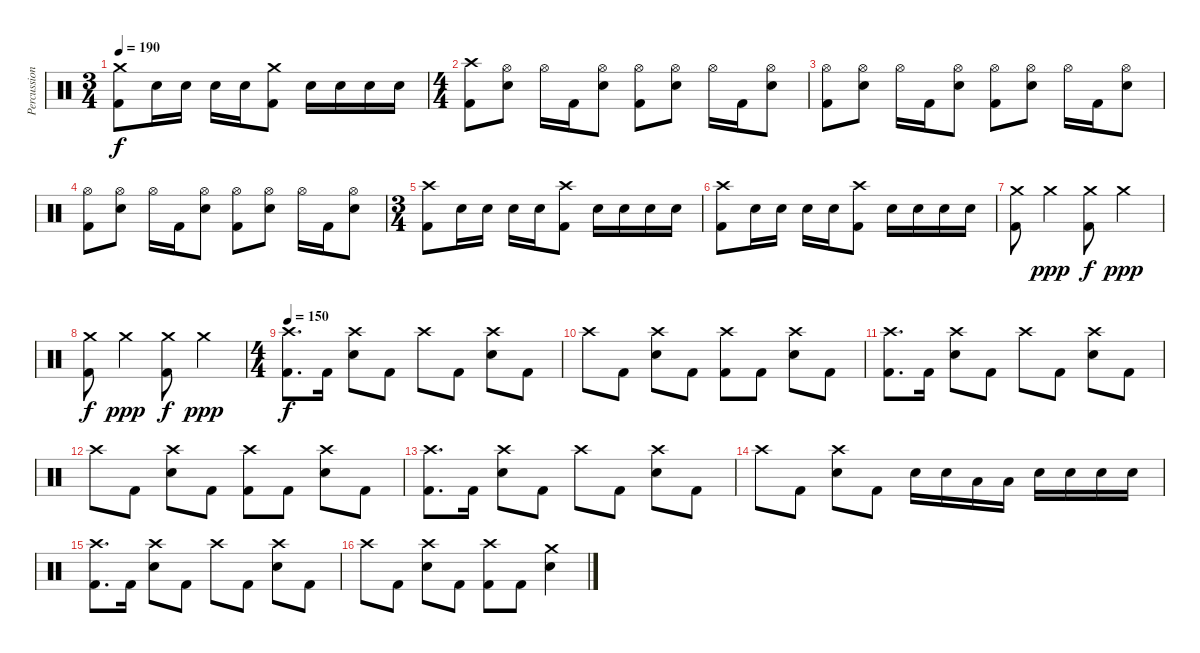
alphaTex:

\track ("Percussion" "Percussion") {instrument percussion}
\staff {score}
\articulation defaults
\ts (3 4)
\tempo 190
\clef neutral
\ks c
("Crash medium (hit)" "Kick (hit) 2").8{dy f} "Electric Snare (hit)".16 "Electric Snare (hit)".16 "Electric Snare (hit)".16 "Electric Snare (hit)".16 ("Crash medium (hit)" "Kick (hit) 2").8 "Electric Snare (hit)".16 "Electric Snare (hit)".16 "Electric Snare (hit)".16 "Electric Snare (hit)".16 |
\ts (4 4)
("Crash high (hit)" "Kick (hit) 2").8 ("Hi-Hat (open)" "Electric Snare (hit)").8 "Hi-Hat (open)".16 "Kick (hit) 2".16 ("Hi-Hat (open)" "Electric Snare (hit)").8 ("Hi-Hat (open)" "Kick (hit) 2").8 ("Hi-Hat (open)" "Electric Snare (hit)").8 "Hi-Hat (open)".16 "Kick (hit) 2".16 ("Hi-Hat (open)" "Electric Snare (hit)").8 |
("Hi-Hat (open)" "Kick (hit) 2").8 ("Hi-Hat (open)" "Electric Snare (hit)").8 "Hi-Hat (open)".16 "Kick (hit) 2".16 ("Hi-Hat (open)" "Electric Snare (hit)").8 ("Hi-Hat (open)" "Kick (hit) 2").8 ("Hi-Hat (open)" "Electric Snare (hit)").8 "Hi-Hat (open)".16 "Kick (hit) 2".16 ("Hi-Hat (open)" "Electric Snare (hit)").8 |
("Hi-Hat (open)" "Kick (hit) 2").8 ("Hi-Hat (open)" "Electric Snare (hit)").8 "Hi-Hat (open)".16 "Kick (hit) 2".16 ("Hi-Hat (open)" "Electric Snare (hit)").8 ("Hi-Hat (open)" "Kick (hit) 2").8 ("Hi-Hat (open)" "Electric Snare (hit)").8 "Hi-Hat (open)".16 "Kick (hit) 2".16 ("Hi-Hat (open)" "Electric Snare (hit)").8 |
\ts (3 4)
("Crash high (hit)" "Kick (hit) 2").8 "Electric Snare (hit)".16 "Electric Snare (hit)".16 "Electric Snare (hit)".16 "Electric Snare (hit)".16 ("Crash high (hit)" "Kick (hit) 2").8 "Electric Snare (hit)".16 "Electric Snare (hit)".16 "Electric Snare (hit)".16 "Electric Snare (hit)".16 |
("Crash high (hit)" "Kick (hit) 2").8 "Electric Snare (hit)".16 "Electric Snare (hit)".16 "Electric Snare (hit)".16 "Electric Snare (hit)".16 ("Crash high (hit)" "Kick (hit) 2").8 "Electric Snare (hit)".16 "Electric Snare (hit)".16 "Electric Snare (hit)".16 "Electric Snare (hit)".16 |
("Crash medium (hit)" "Kick (hit) 2").8 "Crash medium (hit)".4{dy ppp} ("Crash medium (hit)" "Kick (hit) 2").8{dy f} "Crash medium (hit)".4{dy ppp} |
("Crash medium (hit)" "Kick (hit) 2").8{dy f} "Crash medium (hit)".4{dy ppp} ("Crash medium (hit)" "Kick (hit) 2").8{dy f} "Crash medium (hit)".4{dy ppp} |
\ts (4 4)
\tempo 150
("Crash high (hit)" "Kick (hit) 2").8{d dy f} "Kick (hit) 2".16 ("Crash high (hit)" "Electric Snare (hit)").8 "Kick (hit) 2".8 "Crash high (hit)".8 "Kick (hit) 2".8 ("Crash high (hit)" "Electric Snare (hit)").8 "Kick (hit) 2".8 |
"Crash high (hit)".8 "Kick (hit) 2".8 ("Crash high (hit)" "Electric Snare (hit)").8 "Kick (hit) 2".8 ("Crash high (hit)" "Kick (hit) 2").8 "Kick (hit) 2".8 ("Crash high (hit)" "Electric Snare (hit)").8 "Kick (hit) 2".8 |
("Crash high (hit)" "Kick (hit) 2").8{d} "Kick (hit) 2".16 ("Crash high (hit)" "Electric Snare (hit)").8 "Kick (hit) 2".8 "Crash high (hit)".8 "Kick (hit) 2".8 ("Crash high (hit)" "Electric Snare (hit)").8 "Kick (hit) 2".8 |
"Crash high (hit)".8 "Kick (hit) 2".8 ("Crash high (hit)" "Electric Snare (hit)").8 "Kick (hit) 2".8 ("Crash high (hit)" "Kick (hit) 2").8 "Kick (hit) 2".8 ("Crash high (hit)" "Electric Snare (hit)").8 "Kick (hit) 2".8 |
("Crash high (hit)" "Kick (hit) 2").8{d} "Kick (hit) 2".16 ("Crash high (hit)" "Electric Snare (hit)").8 "Kick (hit) 2".8 "Crash high (hit)".8 "Kick (hit) 2".8 ("Crash high (hit)" "Electric Snare (hit)").8 "Kick (hit) 2".8 |
"Crash high (hit)".8 "Kick (hit) 2".8 ("Crash high (hit)" "Electric Snare (hit)").8 "Kick (hit) 2".8 "Electric Snare (hit)".16 "Electric Snare (hit)".16 "Low Tom (hit)".16 "Low Floor Tom (hit)".16 "Electric Snare (hit)".16 "Electric Snare (hit)".16 "Electric Snare (hit)".16 "Electric Snare (hit)".16 |
("Crash high (hit)" "Kick (hit) 2").8{d} "Kick (hit) 2".16 ("Crash high (hit)" "Electric Snare (hit)").8 "Kick (hit) 2".8 "Crash high (hit)".8 "Kick (hit) 2".8 ("Crash high (hit)" "Electric Snare (hit)").8 "Kick (hit) 2".8 |
"Crash high (hit)".8 "Kick (hit) 2".8 ("Crash high (hit)" "Electric Snare (hit)").8 "Kick (hit) 2".8 ("Crash high (hit)" "Kick (hit) 2").8 "Kick (hit) 2".8 ("Crash medium (hit)" "Electric Snare (hit)").4
